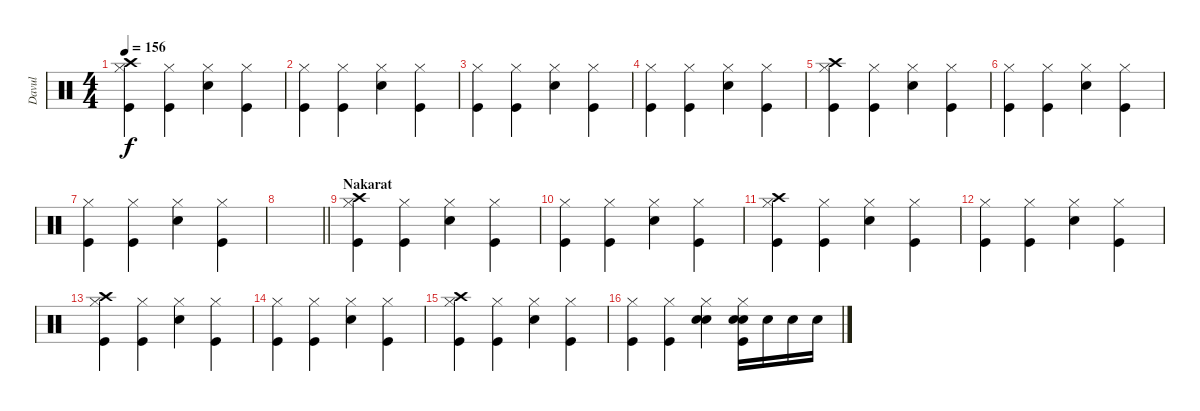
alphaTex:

\track ("Davul" "Davul") {instrument percussion}
\staff {score}
\articulation defaults
\ts (4 4)
\tempo 156
\clef neutral
\ks c
("Hi-Hat (closed)" "Kick (hit)" "Crash high (hit)").4{dy f} ("Hi-Hat (closed)" "Kick (hit)").4 ("Hi-Hat (closed)" "Snare (hit) 2").4 ("Hi-Hat (closed)" "Kick (hit)").4 |
("Hi-Hat (closed)" "Kick (hit)").4 ("Hi-Hat (closed)" "Kick (hit)").4 ("Hi-Hat (closed)" "Snare (hit) 2").4 ("Hi-Hat (closed)" "Kick (hit)").4 |
("Hi-Hat (closed)" "Kick (hit)").4 ("Hi-Hat (closed)" "Kick (hit)").4 ("Hi-Hat (closed)" "Snare (hit) 2").4 ("Hi-Hat (closed)" "Kick (hit)").4 |
("Hi-Hat (closed)" "Kick (hit)").4 ("Hi-Hat (closed)" "Kick (hit)").4 ("Hi-Hat (closed)" "Snare (hit) 2").4 ("Hi-Hat (closed)" "Kick (hit)").4 |
("Hi-Hat (closed)" "Kick (hit)" "Crash high (hit)").4 ("Hi-Hat (closed)" "Kick (hit)").4 ("Hi-Hat (closed)" "Snare (hit) 2").4 ("Hi-Hat (closed)" "Kick (hit)").4 |
("Hi-Hat (closed)" "Kick (hit)").4 ("Hi-Hat (closed)" "Kick (hit)").4 ("Hi-Hat (closed)" "Snare (hit) 2").4 ("Hi-Hat (closed)" "Kick (hit)").4 |
("Hi-Hat (closed)" "Kick (hit)").4 ("Hi-Hat (closed)" "Kick (hit)").4 ("Hi-Hat (closed)" "Snare (hit) 2").4 ("Hi-Hat (closed)" "Kick (hit)").4 |
\barLineRight lightlight
|
\section ("" "Nakarat")
("Hi-Hat (closed)" "Kick (hit)" "Crash high (hit)").4 ("Hi-Hat (closed)" "Kick (hit)").4 ("Hi-Hat (closed)" "Snare (hit) 2").4 ("Hi-Hat (closed)" "Kick (hit)").4 |
("Hi-Hat (closed)" "Kick (hit)").4 ("Hi-Hat (closed)" "Kick (hit)").4 ("Hi-Hat (closed)" "Snare (hit) 2").4 ("Hi-Hat (closed)" "Kick (hit)").4 |
("Hi-Hat (closed)" "Kick (hit)" "Crash high (hit)").4 ("Hi-Hat (closed)" "Kick (hit)").4 ("Hi-Hat (closed)" "Snare (hit) 2").4 ("Hi-Hat (closed)" "Kick (hit)").4 |
("Hi-Hat (closed)" "Kick (hit)").4 ("Hi-Hat (closed)" "Kick (hit)").4 ("Hi-Hat (closed)" "Snare (hit) 2").4 ("Hi-Hat (closed)" "Kick (hit)").4 |
("Hi-Hat (closed)" "Kick (hit)" "Crash high (hit)").4 ("Hi-Hat (closed)" "Kick (hit)").4 ("Hi-Hat (closed)" "Snare (hit) 2").4 ("Hi-Hat (closed)" "Kick (hit)").4 |
("Hi-Hat (closed)" "Kick (hit)").4 ("Hi-Hat (closed)" "Kick (hit)").4 ("Hi-Hat (closed)" "Snare (hit) 2").4 ("Hi-Hat (closed)" "Kick (hit)").4 |
("Hi-Hat (closed)" "Kick (hit)" "Crash high (hit)").4 ("Hi-Hat (closed)" "Kick (hit)").4 ("Hi-Hat (closed)" "Snare (hit) 2").4 ("Hi-Hat (closed)" "Kick (hit)").4 |
("Hi-Hat (closed)" "Kick (hit)").4 ("Hi-Hat (closed)" "Kick (hit)").4 ("Hi-Hat (closed)" "Snare (hit) 2" "Snare (hit) 2").4 ("Hi-Hat (closed)" "Kick (hit)" "Snare (hit) 2" "Snare (hit) 2").16 "Snare (hit) 2".16 "Snare (hit) 2".16 "Snare (hit) 2".16
